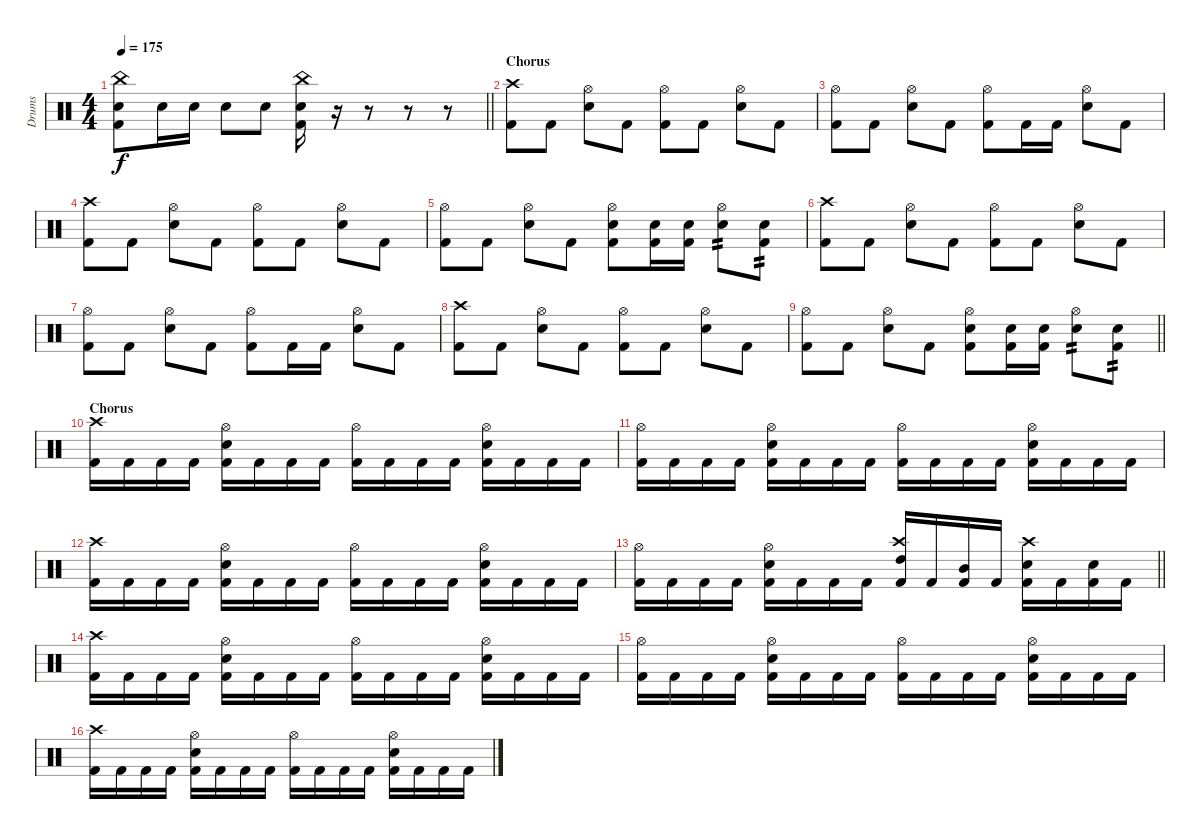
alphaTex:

\track ("Drums" "Drums") {instrument percussion}
\staff {score}
\articulation defaults
\ts (4 4)
\tempo 175
\clef neutral
\barLineRight lightlight
\ks c
("China (hit)" "Snare (hit) 2" "Kick (hit) 2").8{dy f} "Snare (hit) 2".16 "Snare (hit) 2".16 "Snare (hit) 2".8 "Snare (hit) 2".8 ("China (hit)" "Snare (hit) 2" "Kick (hit) 2").16 r.16 r.8 r.8 r.8 |
\section ("" "Chorus")
("Crash high (hit)" "Kick (hit) 2").8 "Kick (hit) 2".8 ("Hi-Hat (open)" "Snare (hit) 2").8 "Kick (hit) 2".8 ("Hi-Hat (open)" "Kick (hit) 2").8 "Kick (hit) 2".8 ("Hi-Hat (open)" "Snare (hit) 2").8 "Kick (hit) 2".8 |
("Hi-Hat (open)" "Kick (hit) 2").8 "Kick (hit) 2".8 ("Hi-Hat (open)" "Snare (hit) 2").8 "Kick (hit) 2".8 ("Hi-Hat (open)" "Kick (hit) 2").8 "Kick (hit) 2".16 "Kick (hit) 2".16 ("Hi-Hat (open)" "Snare (hit) 2").8 "Kick (hit) 2".8 |
("Crash high (hit)" "Kick (hit) 2").8 "Kick (hit) 2".8 ("Hi-Hat (open)" "Snare (hit) 2").8 "Kick (hit) 2".8 ("Hi-Hat (open)" "Kick (hit) 2").8 "Kick (hit) 2".8 ("Hi-Hat (open)" "Snare (hit) 2").8 "Kick (hit) 2".8 |
("Hi-Hat (open)" "Kick (hit) 2").8 "Kick (hit) 2".8 ("Hi-Hat (open)" "Snare (hit) 2").8 "Kick (hit) 2".8 ("Hi-Hat (open)" "Snare (hit) 2" "Kick (hit) 2").8 ("Snare (hit) 2" "Kick (hit) 2").16 ("Snare (hit) 2" "Kick (hit) 2").16 ("Hi-Hat (open)" "Snare (hit) 2").8{tp 2} ("Snare (hit) 2" "Kick (hit) 2").8{tp 2} |
("Crash high (hit)" "Kick (hit) 2").8 "Kick (hit) 2".8 ("Hi-Hat (open)" "Snare (hit) 2").8 "Kick (hit) 2".8 ("Hi-Hat (open)" "Kick (hit) 2").8 "Kick (hit) 2".8 ("Hi-Hat (open)" "Snare (hit) 2").8 "Kick (hit) 2".8 |
("Hi-Hat (open)" "Kick (hit) 2").8 "Kick (hit) 2".8 ("Hi-Hat (open)" "Snare (hit) 2").8 "Kick (hit) 2".8 ("Hi-Hat (open)" "Kick (hit) 2").8 "Kick (hit) 2".16 "Kick (hit) 2".16 ("Hi-Hat (open)" "Snare (hit) 2").8 "Kick (hit) 2".8 |
("Crash high (hit)" "Kick (hit) 2").8 "Kick (hit) 2".8 ("Hi-Hat (open)" "Snare (hit) 2").8 "Kick (hit) 2".8 ("Hi-Hat (open)" "Kick (hit) 2").8 "Kick (hit) 2".8 ("Hi-Hat (open)" "Snare (hit) 2").8 "Kick (hit) 2".8 |
\barLineRight lightlight
("Hi-Hat (open)" "Kick (hit) 2").8 "Kick (hit) 2".8 ("Hi-Hat (open)" "Snare (hit) 2").8 "Kick (hit) 2".8 ("Hi-Hat (open)" "Snare (hit) 2" "Kick (hit) 2").8 ("Snare (hit) 2" "Kick (hit) 2").16 ("Snare (hit) 2" "Kick (hit) 2").16 ("Hi-Hat (open)" "Snare (hit) 2").8{tp 2} ("Snare (hit) 2" "Kick (hit) 2").8{tp 2} |
\section ("" "Chorus")
("Crash high (hit)" "Kick (hit) 2").16 "Kick (hit) 2".16 "Kick (hit) 2".16 "Kick (hit) 2".16 ("Hi-Hat (open)" "Snare (hit) 2" "Kick (hit) 2").16 "Kick (hit) 2".16 "Kick (hit) 2".16 "Kick (hit) 2".16 ("Hi-Hat (open)" "Kick (hit) 2").16 "Kick (hit) 2".16 "Kick (hit) 2".16 "Kick (hit) 2".16 ("Hi-Hat (open)" "Snare (hit) 2" "Kick (hit) 2").16 "Kick (hit) 2".16 "Kick (hit) 2".16 "Kick (hit) 2".16 |
("Hi-Hat (open)" "Kick (hit) 2").16 "Kick (hit) 2".16 "Kick (hit) 2".16 "Kick (hit) 2".16 ("Hi-Hat (open)" "Snare (hit) 2" "Kick (hit) 2").16 "Kick (hit) 2".16 "Kick (hit) 2".16 "Kick (hit) 2".16 ("Hi-Hat (open)" "Kick (hit) 2").16 "Kick (hit) 2".16 "Kick (hit) 2".16 "Kick (hit) 2".16 ("Hi-Hat (open)" "Snare (hit) 2" "Kick (hit) 2").16 "Kick (hit) 2".16 "Kick (hit) 2".16 "Kick (hit) 2".16 |
("Crash high (hit)" "Kick (hit) 2").16 "Kick (hit) 2".16 "Kick (hit) 2".16 "Kick (hit) 2".16 ("Hi-Hat (open)" "Snare (hit) 2" "Kick (hit) 2").16 "Kick (hit) 2".16 "Kick (hit) 2".16 "Kick (hit) 2".16 ("Hi-Hat (open)" "Kick (hit) 2").16 "Kick (hit) 2".16 "Kick (hit) 2".16 "Kick (hit) 2".16 ("Hi-Hat (open)" "Snare (hit) 2" "Kick (hit) 2").16 "Kick (hit) 2".16 "Kick (hit) 2".16 "Kick (hit) 2".16 |
\barLineRight lightlight
("Hi-Hat (open)" "Kick (hit) 2").16 "Kick (hit) 2".16 "Kick (hit) 2".16 "Kick (hit) 2".16 ("Hi-Hat (open)" "Snare (hit) 2" "Kick (hit) 2").16 "Kick (hit) 2".16 "Kick (hit) 2".16 "Kick (hit) 2".16 ("Crash high (hit)" "High Tom (hit)" "Kick (hit) 2").16 "Kick (hit) 2".16 ("Mid Tom (hit)" "Kick (hit) 2").16 "Kick (hit) 2".16 ("Crash high (hit)" "Snare (hit) 2" "Kick (hit) 2").16 "Kick (hit) 2".16 ("Snare (hit) 2" "Kick (hit) 2").16 "Kick (hit) 2".16 |
("Crash high (hit)" "Kick (hit) 2").16 "Kick (hit) 2".16 "Kick (hit) 2".16 "Kick (hit) 2".16 ("Hi-Hat (open)" "Snare (hit) 2" "Kick (hit) 2").16 "Kick (hit) 2".16 "Kick (hit) 2".16 "Kick (hit) 2".16 ("Hi-Hat (open)" "Kick (hit) 2").16 "Kick (hit) 2".16 "Kick (hit) 2".16 "Kick (hit) 2".16 ("Hi-Hat (open)" "Snare (hit) 2" "Kick (hit) 2").16 "Kick (hit) 2".16 "Kick (hit) 2".16 "Kick (hit) 2".16 |
("Hi-Hat (open)" "Kick (hit) 2").16 "Kick (hit) 2".16 "Kick (hit) 2".16 "Kick (hit) 2".16 ("Hi-Hat (open)" "Snare (hit) 2" "Kick (hit) 2").16 "Kick (hit) 2".16 "Kick (hit) 2".16 "Kick (hit) 2".16 ("Hi-Hat (open)" "Kick (hit) 2").16 "Kick (hit) 2".16 "Kick (hit) 2".16 "Kick (hit) 2".16 ("Hi-Hat (open)" "Snare (hit) 2" "Kick (hit) 2").16 "Kick (hit) 2".16 "Kick (hit) 2".16 "Kick (hit) 2".16 |
("Crash high (hit)" "Kick (hit) 2").16 "Kick (hit) 2".16 "Kick (hit) 2".16 "Kick (hit) 2".16 ("Hi-Hat (open)" "Snare (hit) 2" "Kick (hit) 2").16 "Kick (hit) 2".16 "Kick (hit) 2".16 "Kick (hit) 2".16 ("Hi-Hat (open)" "Kick (hit) 2").16 "Kick (hit) 2".16 "Kick (hit) 2".16 "Kick (hit) 2".16 ("Hi-Hat (open)" "Snare (hit) 2" "Kick (hit) 2").16 "Kick (hit) 2".16 "Kick (hit) 2".16 "Kick (hit) 2".16
